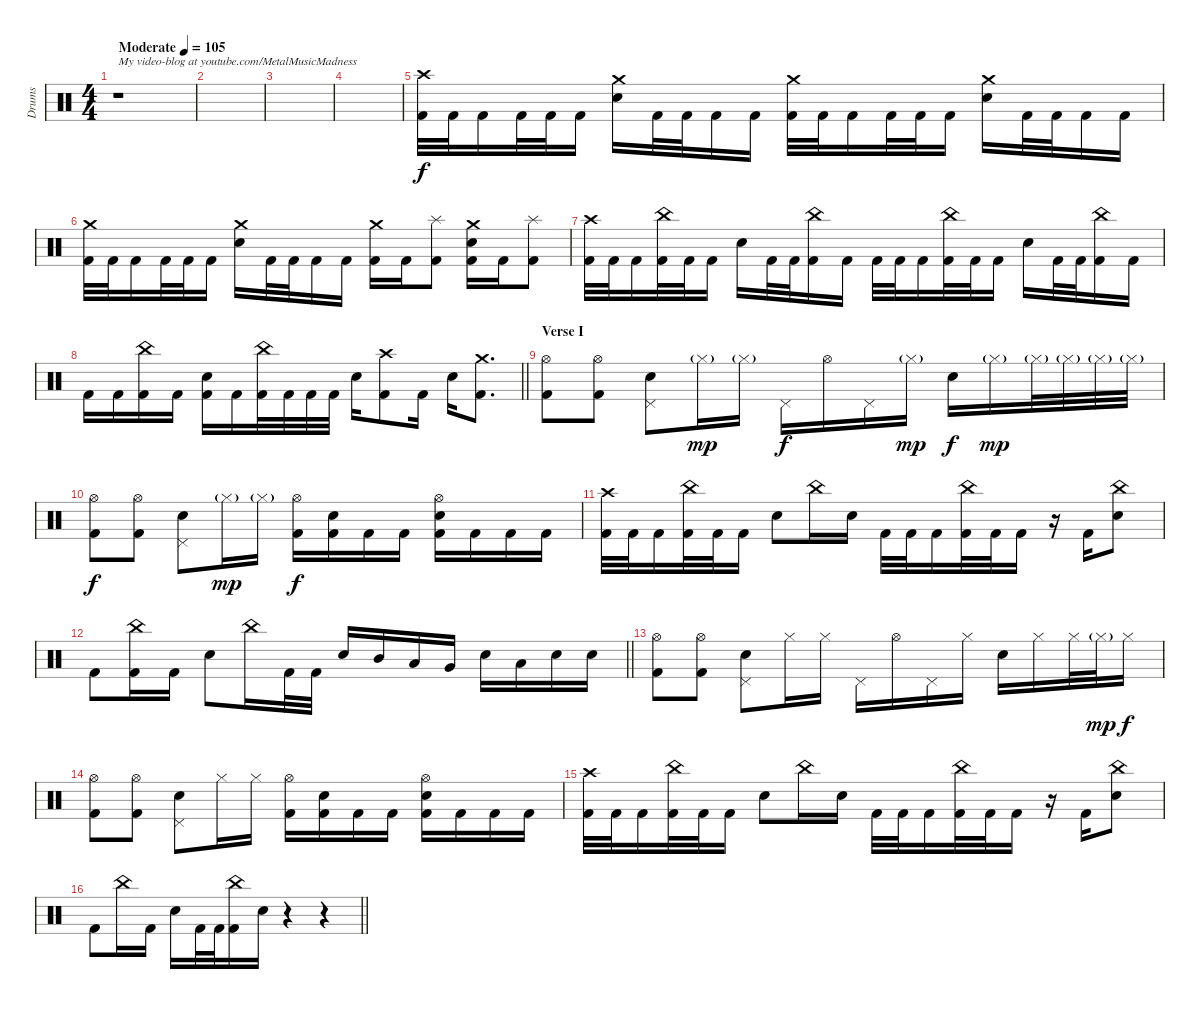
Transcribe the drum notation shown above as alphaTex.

\track ("Drums" "Drums") {instrument percussion}
\staff {score}
\articulation defaults
\ts (4 4)
\tempo (105 "Moderate")
\clef neutral
\ks c
r.1{txt "My video-blog at youtube.com/MetalMusicMadness" dy f} |
|
|
|
("Crash high (hit)" "Kick (hit) 2").32 "Kick (hit) 2".32 "Kick (hit) 2".16 "Kick (hit) 2".32 "Kick (hit) 2".32 "Kick (hit) 2".16 ("Crash medium (hit)" "Electric Snare (hit)").16 "Kick (hit) 2".32 "Kick (hit) 2".32 "Kick (hit) 2".16 "Kick (hit) 2".16 ("Crash medium (hit)" "Kick (hit) 2").32 "Kick (hit) 2".32 "Kick (hit) 2".16 "Kick (hit) 2".32 "Kick (hit) 2".32 "Kick (hit) 2".16 ("Crash medium (hit)" "Electric Snare (hit)").16 "Kick (hit) 2".32 "Kick (hit) 2".32 "Kick (hit) 2".16 "Kick (hit) 2".16 |
("Crash medium (hit)" "Kick (hit) 2").32 "Kick (hit) 2".32 "Kick (hit) 2".16 "Kick (hit) 2".32 "Kick (hit) 2".32 "Kick (hit) 2".16 ("Crash medium (hit)" "Electric Snare (hit)").16 "Kick (hit) 2".32 "Kick (hit) 2".32 "Kick (hit) 2".16 "Kick (hit) 2".16 ("Crash medium (hit)" "Kick (hit) 2").16 "Kick (hit) 2".16 ("Splash (hit)" "Kick (hit) 2").8 ("Crash medium (hit)" "Electric Snare (hit)" "Kick (hit) 2").16 "Kick (hit) 2".16 ("Splash (hit)" "Kick (hit) 2").8 |
("Crash high (hit)" "Kick (hit) 2").32 "Kick (hit) 2".32 "Kick (hit) 2".16 ("China (hit)" "Kick (hit) 2").32 "Kick (hit) 2".32 "Kick (hit) 2".16 "Electric Snare (hit)".16 "Kick (hit) 2".32 "Kick (hit) 2".32 ("China (hit)" "Kick (hit) 2").16 "Kick (hit) 2".16 "Kick (hit) 2".32 "Kick (hit) 2".32 "Kick (hit) 2".16 ("China (hit)" "Kick (hit) 2").32 "Kick (hit) 2".32 "Kick (hit) 2".16 "Electric Snare (hit)".16 "Kick (hit) 2".32 "Kick (hit) 2".32 ("China (hit)" "Kick (hit) 2").16 "Kick (hit) 2".16 |
\barLineRight lightlight "Kick (hit) 2".16 "Kick (hit) 2".16
("China (hit)" "Kick (hit) 2").16 "Kick (hit) 2".16 ("Electric Snare (hit)" "Kick (hit) 2").16 "Kick (hit) 2".16 ("China (hit)" "Kick (hit) 2").32 "Kick (hit) 2".32 "Kick (hit) 2".32 "Kick (hit) 2".32 "Electric Snare (hit)".16 ("Crash high (hit)" "Kick (hit) 2").8 "Kick (hit) 2".16 "Electric Snare (hit)".16 ("Crash medium (hit)" "Kick (hit) 2").8{d} |
\section ("" "Verse I")
("Hi-Hat (open)" "Kick (hit) 2").8 ("Hi-Hat (open)" "Kick (hit) 2").8 ("Pedal Hi-Hat (hit)" "Electric Snare (hit)").8 "Hi-Hat (closed)"{g}.16{dy mp} "Hi-Hat (closed)"{g}.16 "Pedal Hi-Hat (hit)".16{dy f} "Hi-Hat (open)".16 "Pedal Hi-Hat (hit)".16 "Hi-Hat (closed)"{g}.16{dy mp} "Electric Snare (hit)".16{dy f} "Hi-Hat (closed)"{g}.16{dy mp} "Hi-Hat (closed)"{g}.32 "Hi-Hat (closed)"{g}.32 "Hi-Hat (closed)"{g}.32 "Hi-Hat (closed)"{g}.32 |
("Hi-Hat (open)" "Kick (hit) 2").8{dy f} ("Hi-Hat (open)" "Kick (hit) 2").8 ("Pedal Hi-Hat (hit)" "Electric Snare (hit)").8 "Hi-Hat (closed)"{g}.16{dy mp} "Hi-Hat (closed)"{g}.16 ("Hi-Hat (open)" "Kick (hit) 2").16{dy f} ("Electric Snare (hit)" "Kick (hit) 2").16 "Kick (hit) 2".16 "Kick (hit) 2".16 ("Hi-Hat (open)" "Electric Snare (hit)" "Kick (hit) 2").16 "Kick (hit) 2".16 "Kick (hit) 2".16 "Kick (hit) 2".16 |
("Crash high (hit)" "Kick (hit) 2").32 "Kick (hit) 2".32 "Kick (hit) 2".16 ("China (hit)" "Kick (hit) 2").32 "Kick (hit) 2".32 "Kick (hit) 2".16 "Electric Snare (hit)".8 "China (hit)".16 "Electric Snare (hit)".16 "Kick (hit) 2".32 "Kick (hit) 2".32 "Kick (hit) 2".16 ("China (hit)" "Kick (hit) 2").32 "Kick (hit) 2".32 "Kick (hit) 2".16 r.16 "Kick (hit) 2".16 ("China (hit)" "Electric Snare (hit)").8 |
\barLineRight lightlight "Kick (hit) 2".8
("China (hit)" "Kick (hit) 2").16 "Kick (hit) 2".16 "Electric Snare (hit)".8 "China (hit)".16 "Kick (hit) 2".32 "Kick (hit) 2".32 "Electric Snare (hit)".16 "Mid Tom (hit)".16 "Low Tom (hit)".16 "Very Low Tom (hit)".16 "Electric Snare (hit)".16 "Low Tom (hit)".16 "Electric Snare (hit)".16 "Electric Snare (hit)".16 |
("Hi-Hat (open)" "Kick (hit) 2").8 ("Hi-Hat (open)" "Kick (hit) 2").8 ("Pedal Hi-Hat (hit)" "Electric Snare (hit)").8 "Hi-Hat (closed)".16 "Hi-Hat (closed)".16 "Pedal Hi-Hat (hit)".16 "Hi-Hat (open)".16 "Pedal Hi-Hat (hit)".16 "Hi-Hat (closed)".16 "Electric Snare (hit)".16 "Hi-Hat (closed)".16 "Hi-Hat (closed)".32 "Hi-Hat (closed)"{g}.32{dy mp} "Hi-Hat (closed)".16{dy f} |
("Hi-Hat (open)" "Kick (hit) 2").8 ("Hi-Hat (open)" "Kick (hit) 2").8 ("Pedal Hi-Hat (hit)" "Electric Snare (hit)").8 "Hi-Hat (closed)".16 "Hi-Hat (closed)".16 ("Hi-Hat (open)" "Kick (hit) 2").16 ("Electric Snare (hit)" "Kick (hit) 2").16 "Kick (hit) 2".16 "Kick (hit) 2".16 ("Hi-Hat (open)" "Electric Snare (hit)" "Kick (hit) 2").16 "Kick (hit) 2".16 "Kick (hit) 2".16 "Kick (hit) 2".16 |
("Crash high (hit)" "Kick (hit) 2").32 "Kick (hit) 2".32 "Kick (hit) 2".16 ("China (hit)" "Kick (hit) 2").32 "Kick (hit) 2".32 "Kick (hit) 2".16 "Electric Snare (hit)".8 "China (hit)".16 "Electric Snare (hit)".16 "Kick (hit) 2".32 "Kick (hit) 2".32 "Kick (hit) 2".16 ("China (hit)" "Kick (hit) 2").32 "Kick (hit) 2".32 "Kick (hit) 2".16 r.16 "Kick (hit) 2".16 ("China (hit)" "Electric Snare (hit)").8 |
\barLineRight lightlight "Kick (hit) 2".8 "China (hit)".16 "Kick (hit) 2".16 "Electric Snare (hit)".16 "Kick (hit) 2".32 "Kick (hit) 2".32
("China (hit)" "Kick (hit) 2").16 "Electric Snare (hit)".16 r.4 r.4
